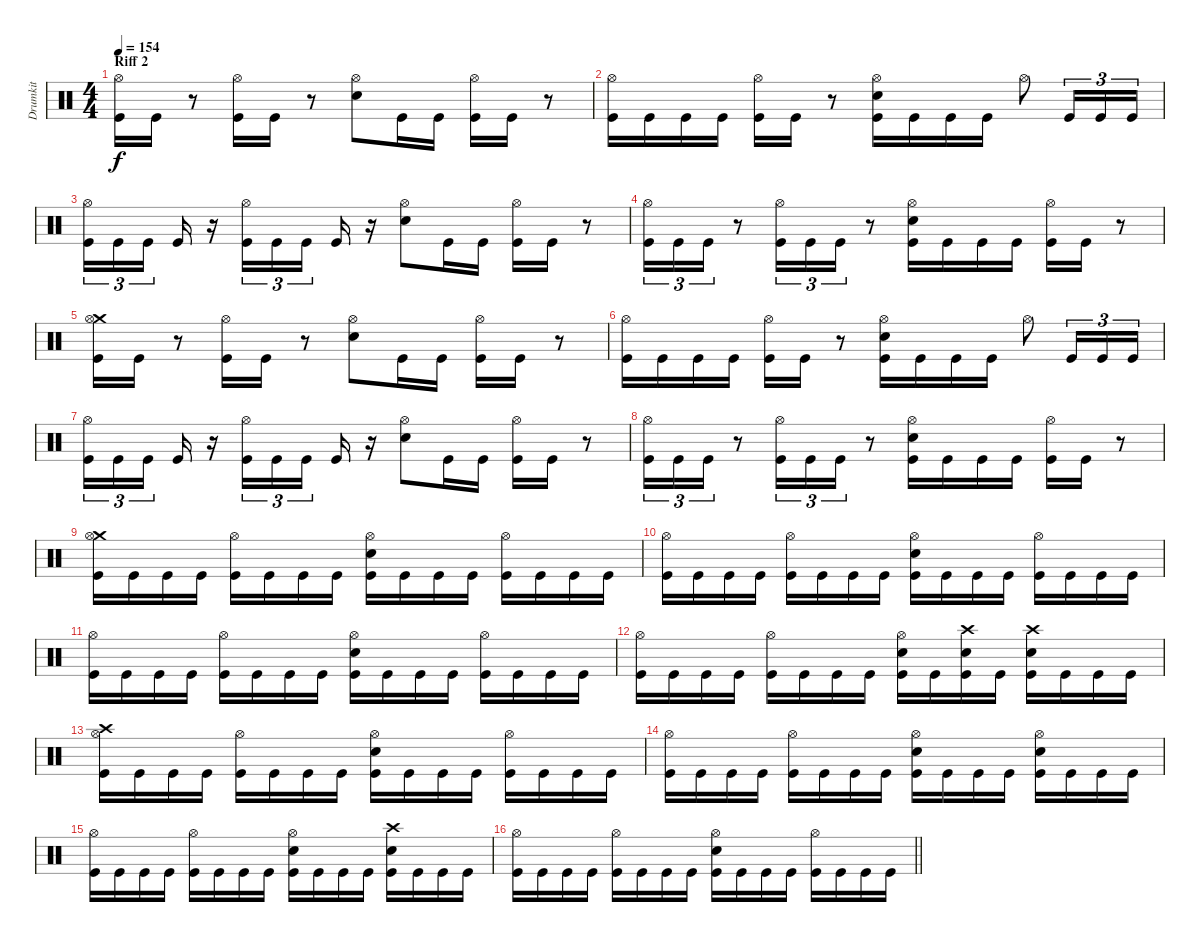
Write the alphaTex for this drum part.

\track ("Drumkit" "Drumkit") {mute instrument percussion}
\staff {score}
\articulation defaults
\ts (4 4)
\section ("" "Riff 2")
\tempo 154
\clef neutral
\ks c
("Hi-Hat (open)" "Kick (hit)").16{dy f} "Kick (hit)".16 r.8 ("Hi-Hat (open)" "Kick (hit)").16 "Kick (hit)".16 r.8 ("Hi-Hat (open)" "Snare (hit) 2").8 "Kick (hit)".16 "Kick (hit)".16 ("Hi-Hat (open)" "Kick (hit)").16 "Kick (hit)".16 r.8 |
("Hi-Hat (open)" "Kick (hit)").16 "Kick (hit)".16 "Kick (hit)".16 "Kick (hit)".16 ("Hi-Hat (open)" "Kick (hit)").16 "Kick (hit)".16 r.8 ("Hi-Hat (open)" "Snare (hit) 2" "Kick (hit)").16 "Kick (hit)".16 "Kick (hit)".16 "Kick (hit)".16 "Hi-Hat (open)".8 "Kick (hit)".16{tu (3 2)} "Kick (hit)".16{tu (3 2)} "Kick (hit)".16{tu (3 2)} |
("Hi-Hat (open)" "Kick (hit)").16{tu (3 2)} "Kick (hit)".16{tu (3 2)} "Kick (hit)".16{tu (3 2)} "Kick (hit)".16 r.16 ("Hi-Hat (open)" "Kick (hit)").16{tu (3 2)} "Kick (hit)".16{tu (3 2)} "Kick (hit)".16{tu (3 2)} "Kick (hit)".16 r.16 ("Hi-Hat (open)" "Snare (hit) 2").8 "Kick (hit)".16 "Kick (hit)".16 ("Hi-Hat (open)" "Kick (hit)").16 "Kick (hit)".16 r.8 |
("Hi-Hat (open)" "Kick (hit)").16{tu (3 2)} "Kick (hit)".16{tu (3 2)} "Kick (hit)".16{tu (3 2)} r.8 ("Hi-Hat (open)" "Kick (hit)").16{tu (3 2)} "Kick (hit)".16{tu (3 2)} "Kick (hit)".16{tu (3 2)} r.8 ("Hi-Hat (open)" "Snare (hit) 2" "Kick (hit)").16 "Kick (hit)".16 "Kick (hit)".16 "Kick (hit)".16 ("Hi-Hat (open)" "Kick (hit)").16 "Kick (hit)".16 r.8 |
("Crash medium (hit)" "Hi-Hat (open)" "Kick (hit)").16 "Kick (hit)".16 r.8 ("Hi-Hat (open)" "Kick (hit)").16 "Kick (hit)".16 r.8 ("Hi-Hat (open)" "Snare (hit) 2").8 "Kick (hit)".16 "Kick (hit)".16 ("Hi-Hat (open)" "Kick (hit)").16 "Kick (hit)".16 r.8 |
("Hi-Hat (open)" "Kick (hit)").16 "Kick (hit)".16 "Kick (hit)".16 "Kick (hit)".16 ("Hi-Hat (open)" "Kick (hit)").16 "Kick (hit)".16 r.8 ("Hi-Hat (open)" "Snare (hit) 2" "Kick (hit)").16 "Kick (hit)".16 "Kick (hit)".16 "Kick (hit)".16 "Hi-Hat (open)".8 "Kick (hit)".16{tu (3 2)} "Kick (hit)".16{tu (3 2)} "Kick (hit)".16{tu (3 2)} |
("Hi-Hat (open)" "Kick (hit)").16{tu (3 2)} "Kick (hit)".16{tu (3 2)} "Kick (hit)".16{tu (3 2)} "Kick (hit)".16 r.16 ("Hi-Hat (open)" "Kick (hit)").16{tu (3 2)} "Kick (hit)".16{tu (3 2)} "Kick (hit)".16{tu (3 2)} "Kick (hit)".16 r.16 ("Hi-Hat (open)" "Snare (hit) 2").8 "Kick (hit)".16 "Kick (hit)".16 ("Hi-Hat (open)" "Kick (hit)").16 "Kick (hit)".16 r.8 |
("Hi-Hat (open)" "Kick (hit)").16{tu (3 2)} "Kick (hit)".16{tu (3 2)} "Kick (hit)".16{tu (3 2)} r.8 ("Hi-Hat (open)" "Kick (hit)").16{tu (3 2)} "Kick (hit)".16{tu (3 2)} "Kick (hit)".16{tu (3 2)} r.8 ("Hi-Hat (open)" "Snare (hit) 2" "Kick (hit)").16 "Kick (hit)".16 "Kick (hit)".16 "Kick (hit)".16 ("Hi-Hat (open)" "Kick (hit)").16 "Kick (hit)".16 r.8 |
("Crash medium (hit)" "Hi-Hat (open)" "Kick (hit)").16 "Kick (hit)".16 "Kick (hit)".16 "Kick (hit)".16 ("Hi-Hat (open)" "Kick (hit)").16 "Kick (hit)".16 "Kick (hit)".16 "Kick (hit)".16 ("Hi-Hat (open)" "Snare (hit) 2" "Kick (hit)").16 "Kick (hit)".16 "Kick (hit)".16 "Kick (hit)".16 ("Hi-Hat (open)" "Kick (hit)").16 "Kick (hit)".16 "Kick (hit)".16 "Kick (hit)".16 |
("Hi-Hat (open)" "Kick (hit)").16 "Kick (hit)".16 "Kick (hit)".16 "Kick (hit)".16 ("Hi-Hat (open)" "Kick (hit)").16 "Kick (hit)".16 "Kick (hit)".16 "Kick (hit)".16 ("Hi-Hat (open)" "Snare (hit) 2" "Kick (hit)").16 "Kick (hit)".16 "Kick (hit)".16 "Kick (hit)".16 ("Hi-Hat (open)" "Kick (hit)").16 "Kick (hit)".16 "Kick (hit)".16 "Kick (hit)".16 |
("Hi-Hat (open)" "Kick (hit)").16 "Kick (hit)".16 "Kick (hit)".16 "Kick (hit)".16 ("Hi-Hat (open)" "Kick (hit)").16 "Kick (hit)".16 "Kick (hit)".16 "Kick (hit)".16 ("Hi-Hat (open)" "Snare (hit) 2" "Kick (hit)").16 "Kick (hit)".16 "Kick (hit)".16 "Kick (hit)".16 ("Hi-Hat (open)" "Kick (hit)").16 "Kick (hit)".16 "Kick (hit)".16 "Kick (hit)".16 |
("Hi-Hat (open)" "Kick (hit)").16 "Kick (hit)".16 "Kick (hit)".16 "Kick (hit)".16 ("Hi-Hat (open)" "Kick (hit)").16 "Kick (hit)".16 "Kick (hit)".16 "Kick (hit)".16 ("Hi-Hat (open)" "Snare (hit) 2" "Kick (hit)").16 "Kick (hit)".16 ("Crash high (hit)" "Snare (hit) 2" "Kick (hit)").16 "Kick (hit)".16 ("Crash high (hit)" "Snare (hit) 2" "Kick (hit)").16 "Kick (hit)".16 "Kick (hit)".16 "Kick (hit)".16 |
("Crash high (hit)" "Hi-Hat (open)" "Kick (hit)").16 "Kick (hit)".16 "Kick (hit)".16 "Kick (hit)".16 ("Hi-Hat (open)" "Kick (hit)").16 "Kick (hit)".16 "Kick (hit)".16 "Kick (hit)".16 ("Hi-Hat (open)" "Snare (hit) 2" "Kick (hit)").16 "Kick (hit)".16 "Kick (hit)".16 "Kick (hit)".16 ("Hi-Hat (open)" "Kick (hit)").16 "Kick (hit)".16 "Kick (hit)".16 "Kick (hit)".16 |
("Hi-Hat (open)" "Kick (hit)").16 "Kick (hit)".16 "Kick (hit)".16 "Kick (hit)".16 ("Hi-Hat (open)" "Kick (hit)").16 "Kick (hit)".16 "Kick (hit)".16 "Kick (hit)".16 ("Hi-Hat (open)" "Snare (hit) 2" "Kick (hit)").16 "Kick (hit)".16 "Kick (hit)".16 "Kick (hit)".16 ("Hi-Hat (open)" "Snare (hit) 2" "Kick (hit)").16 "Kick (hit)".16 "Kick (hit)".16 "Kick (hit)".16 |
("Hi-Hat (open)" "Kick (hit)").16 "Kick (hit)".16 "Kick (hit)".16 "Kick (hit)".16 ("Hi-Hat (open)" "Kick (hit)").16 "Kick (hit)".16 "Kick (hit)".16 "Kick (hit)".16 ("Hi-Hat (open)" "Snare (hit) 2" "Kick (hit)").16 "Kick (hit)".16 "Kick (hit)".16 "Kick (hit)".16 ("Crash high (hit)" "Snare (hit) 2" "Kick (hit)").16 "Kick (hit)".16 "Kick (hit)".16 "Kick (hit)".16 |
\barLineRight lightlight
("Hi-Hat (open)" "Kick (hit)").16 "Kick (hit)".16 "Kick (hit)".16 "Kick (hit)".16 ("Hi-Hat (open)" "Kick (hit)").16 "Kick (hit)".16 "Kick (hit)".16 "Kick (hit)".16 ("Hi-Hat (open)" "Snare (hit) 2" "Kick (hit)").16 "Kick (hit)".16 "Kick (hit)".16 "Kick (hit)".16 ("Hi-Hat (open)" "Kick (hit)").16 "Kick (hit)".16 "Kick (hit)".16 "Kick (hit)".16
